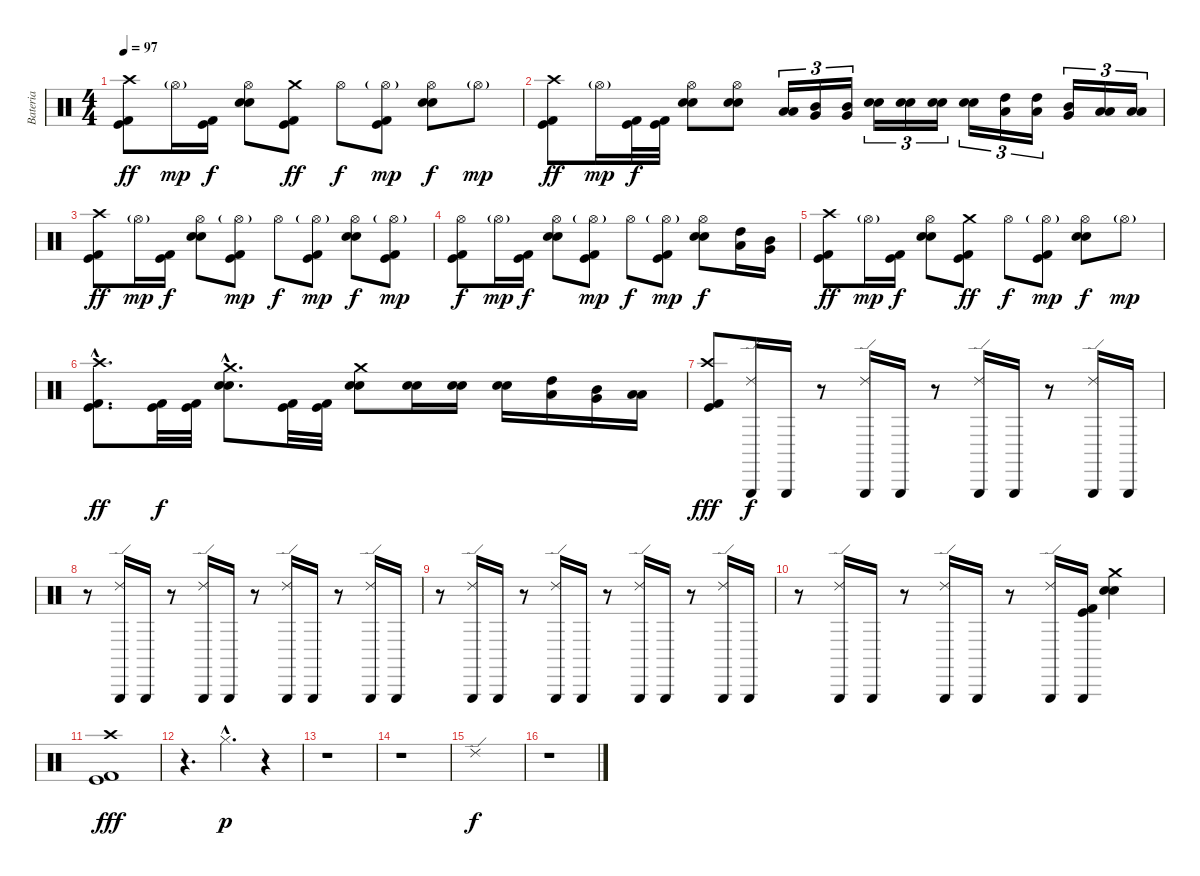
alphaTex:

\track ("Bateria" "Bateria") {instrument percussion}
\staff {score}
\articulation defaults
\ts (4 4)
\tempo 97
\clef neutral
\ks c
("Crash high (hit)" "Kick (hit) 2" "Kick (hit)").8{dy ff} "Hi-Hat (open)"{g}.16{dy mp} ("Kick (hit) 2" "Kick (hit)").16{dy f} ("Hi-Hat (open)" "Electric Snare (hit)" "Snare (hit) 2").8 ("Crash medium (hit)" "Kick (hit) 2" "Kick (hit)").8{dy ff} "Hi-Hat (open)".8{dy f} ("Hi-Hat (open)"{g} "Kick (hit) 2" "Kick (hit)").8{dy mp} ("Hi-Hat (open)" "Electric Snare (hit)" "Snare (hit) 2").8{dy f} "Hi-Hat (open)"{g}.8{dy mp} |
("Crash high (hit)" "Kick (hit) 2" "Kick (hit)").8{dy ff} "Hi-Hat (open)"{g}.16{dy mp} ("Kick (hit) 2" "Kick (hit)").32{dy f} ("Kick (hit) 2" "Kick (hit)").32 ("Hi-Hat (open)" "Electric Snare (hit)" "Snare (hit) 2").8 ("Hi-Hat (open)" "Electric Snare (hit)" "Snare (hit) 2").8 ("Low Tom (hit)" "Low Floor Tom (hit)").16{tu (3 2)} ("Mid Tom (hit)" "Very Low Tom (hit)").16{tu (3 2)} ("Mid Tom (hit)" "Very Low Tom (hit)").16{tu (3 2)} ("Electric Snare (hit)" "Snare (hit) 2").16{tu (3 2)} ("Electric Snare (hit)" "Snare (hit) 2").16{tu (3 2)} ("Electric Snare (hit)" "Snare (hit) 2").16{tu (3 2)} ("Electric Snare (hit)" "Snare (hit) 2").16{tu (3 2)} ("High Tom (hit)" "Low Tom (hit)").16{tu (3 2)} ("High Tom (hit)" "Low Tom (hit)").16{tu (3 2)} ("Mid Tom (hit)" "Very Low Tom (hit)").16{tu (3 2)} ("Low Tom (hit)" "Low Floor Tom (hit)").16{tu (3 2)} ("Low Tom (hit)" "Low Floor Tom (hit)").16{tu (3 2)} |
("Crash high (hit)" "Kick (hit) 2" "Kick (hit)").8{dy ff} "Hi-Hat (open)"{g}.16{dy mp} ("Kick (hit) 2" "Kick (hit)").16{dy f} ("Hi-Hat (open)" "Electric Snare (hit)" "Snare (hit) 2").8 ("Hi-Hat (open)"{g} "Kick (hit) 2" "Kick (hit)").8{dy mp} "Hi-Hat (open)".8{dy f} ("Hi-Hat (open)"{g} "Kick (hit) 2" "Kick (hit)").8{dy mp} ("Hi-Hat (open)" "Electric Snare (hit)" "Snare (hit) 2").8{dy f} ("Hi-Hat (open)"{g} "Kick (hit) 2" "Kick (hit)").8{dy mp} |
("Hi-Hat (open)" "Kick (hit) 2" "Kick (hit)").8{dy f} "Hi-Hat (open)"{g}.16{dy mp} ("Kick (hit) 2" "Kick (hit)").16{dy f} ("Hi-Hat (open)" "Electric Snare (hit)" "Snare (hit) 2").8 ("Hi-Hat (open)"{g} "Kick (hit) 2" "Kick (hit)").8{dy mp} "Hi-Hat (open)".8{dy f} ("Hi-Hat (open)"{g} "Kick (hit) 2" "Kick (hit)").8{dy mp} ("Hi-Hat (open)" "Electric Snare (hit)" "Snare (hit) 2").8{dy f} ("High Tom (hit)" "Low Tom (hit)").16 ("Mid Tom (hit)" "Very Low Tom (hit)").16 |
("Crash high (hit)" "Kick (hit) 2" "Kick (hit)").8{dy ff} "Hi-Hat (open)"{g}.16{dy mp} ("Kick (hit) 2" "Kick (hit)").16{dy f} ("Hi-Hat (open)" "Electric Snare (hit)" "Snare (hit) 2").8 ("Crash medium (hit)" "Kick (hit) 2" "Kick (hit)").8{dy ff} "Hi-Hat (open)".8{dy f} ("Hi-Hat (open)"{g} "Kick (hit) 2" "Kick (hit)").8{dy mp} ("Hi-Hat (open)" "Electric Snare (hit)" "Snare (hit) 2").8{dy f} "Hi-Hat (open)"{g}.8{dy mp} |
("Crash high (hit)"{hac} "Kick (hit) 2"{hac} "Kick (hit)"{hac}).8{d dy ff} ("Kick (hit) 2" "Kick (hit)").32{dy f} ("Kick (hit) 2" "Kick (hit)").32 ("Crash medium (hit)"{hac} "Electric Snare (hit)"{hac} "Snare (hit) 2"{hac}).8{d} ("Kick (hit) 2" "Kick (hit)").32 ("Kick (hit) 2" "Kick (hit)").32 ("Crash medium (hit)" "Electric Snare (hit)" "Snare (hit) 2").8 ("Electric Snare (hit)" "Snare (hit) 2").16 ("Electric Snare (hit)" "Snare (hit) 2").16 ("Electric Snare (hit)" "Snare (hit) 2").16 ("High Tom (hit)" "Low Tom (hit)").16 ("Mid Tom (hit)" "Very Low Tom (hit)").16 ("Low Tom (hit)" "Low Floor Tom (hit)").16 |
("Crash high (hit)" "Kick (hit) 2" "Kick (hit)").8{dy fff} ("Ride (edge) 2" "Triangle (hit)").16{dy f} "Triangle (hit)".16 r.8 ("Ride (edge) 2" "Triangle (hit)").16 "Triangle (hit)".16 r.8 ("Ride (edge) 2" "Triangle (hit)").16 "Triangle (hit)".16 r.8 ("Ride (edge) 2" "Triangle (hit)").16 "Triangle (hit)".16 |
r.8 ("Ride (edge) 2" "Triangle (hit)").16 "Triangle (hit)".16 r.8 ("Ride (edge) 2" "Triangle (hit)").16 "Triangle (hit)".16 r.8 ("Ride (edge) 2" "Triangle (hit)").16 "Triangle (hit)".16 r.8 ("Ride (edge) 2" "Triangle (hit)").16 "Triangle (hit)".16 |
r.8 ("Ride (edge) 2" "Triangle (hit)").16 "Triangle (hit)".16 r.8 ("Ride (edge) 2" "Triangle (hit)").16 "Triangle (hit)".16 r.8 ("Ride (edge) 2" "Triangle (hit)").16 "Triangle (hit)".16 r.8 ("Ride (edge) 2" "Triangle (hit)").16 "Triangle (hit)".16 |
r.8 ("Ride (edge) 2" "Triangle (hit)").16 "Triangle (hit)".16 r.8 ("Ride (edge) 2" "Triangle (hit)").16 "Triangle (hit)".16 r.8 ("Ride (edge) 2" "Triangle (hit)").16 ("Triangle (hit)" "Kick (hit) 2" "Kick (hit)").16 ("Crash medium (hit)" "Electric Snare (hit)" "Snare (hit) 2").4 |
("Crash high (hit)" "Kick (hit) 2" "Kick (hit)").1{dy fff} |
r.4{d} "Hi-Hat (closed)"{hac}.4{d dy p} r.4 |
r.1 |
r.1 |
"Ride (edge) 2".1{dy f} |
r.1
